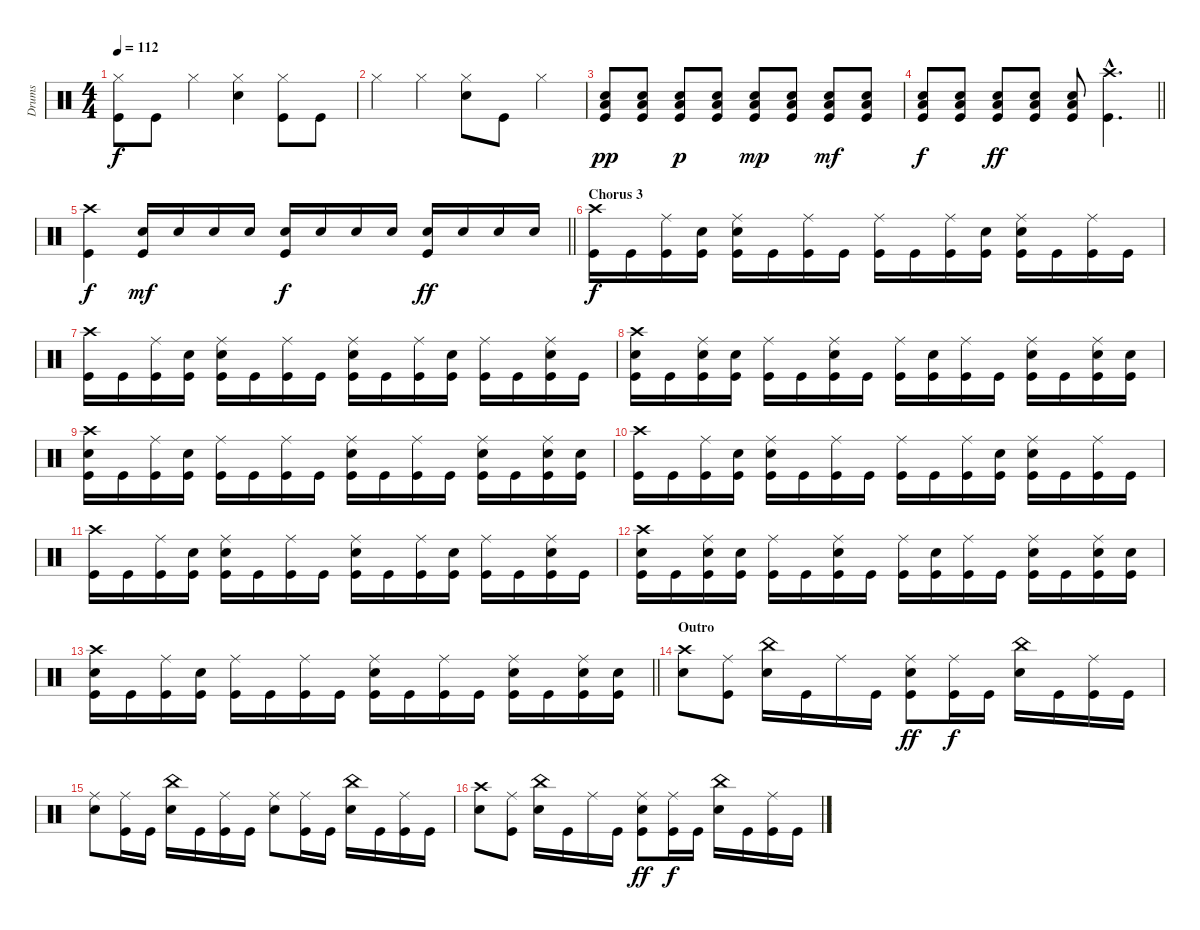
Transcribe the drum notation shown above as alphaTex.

\track ("Drums" "Drums") {instrument percussion}
\staff {score}
\articulation defaults
\ts (4 4)
\tempo 112
\clef neutral
\ks c
("Hi-Hat (closed)" "Kick (hit)").8{dy f} "Kick (hit)".8 "Hi-Hat (closed)".4 ("Hi-Hat (closed)" "Snare (hit) 2").4 ("Kick (hit)" "Hi-Hat (closed)").8 "Kick (hit)".8 |
"Hi-Hat (closed)".4 "Hi-Hat (closed)".4 ("Hi-Hat (closed)" "Snare (hit) 2").8 "Kick (hit)".8 "Hi-Hat (closed)".4 |
("Snare (hit) 2" "Low Floor Tom (hit)" "Kick (hit)").8{dy pp} ("Snare (hit) 2" "Low Floor Tom (hit)" "Kick (hit)").8 ("Snare (hit) 2" "Low Floor Tom (hit)" "Kick (hit)").8{dy p} ("Snare (hit) 2" "Low Floor Tom (hit)" "Kick (hit)").8 ("Snare (hit) 2" "Low Floor Tom (hit)" "Kick (hit)").8{dy mp} ("Snare (hit) 2" "Low Floor Tom (hit)" "Kick (hit)").8 ("Snare (hit) 2" "Low Floor Tom (hit)" "Kick (hit)").8{dy mf} ("Snare (hit) 2" "Low Floor Tom (hit)" "Kick (hit)").8 |
\barLineRight lightlight
("Snare (hit) 2" "Low Floor Tom (hit)" "Kick (hit)").8{dy f} ("Snare (hit) 2" "Low Floor Tom (hit)" "Kick (hit)").8 ("Snare (hit) 2" "Low Floor Tom (hit)" "Kick (hit)").8{dy ff} ("Snare (hit) 2" "Low Floor Tom (hit)" "Kick (hit)").8 ("Snare (hit) 2" "Low Floor Tom (hit)" "Kick (hit)").8 ("Crash high (hit)"{hac} "Kick (hit)"{hac}).4{d} |
\barLineRight lightlight
("Kick (hit)" "Crash high (hit)").4{dy f} ("Snare (hit) 2" "Kick (hit)").16{dy mf} "Snare (hit) 2".16 "Snare (hit) 2".16 "Snare (hit) 2".16 ("Snare (hit) 2" "Kick (hit)").16{dy f} "Snare (hit) 2".16 "Snare (hit) 2".16 "Snare (hit) 2".16 ("Snare (hit) 2" "Kick (hit)").16{dy ff} "Snare (hit) 2".16 "Snare (hit) 2".16 "Snare (hit) 2".16 |
\section ("" "Chorus 3")
("Crash high (hit)" "Kick (hit)").16{dy f} "Kick (hit)".16 ("Ride (middle)" "Kick (hit)").16 ("Snare (hit) 2" "Kick (hit)").16 ("Ride (middle)" "Snare (hit) 2" "Kick (hit)").16 "Kick (hit)".16 ("Ride (middle)" "Kick (hit)").16 "Kick (hit)".16 ("Ride (middle)" "Kick (hit)").16 "Kick (hit)".16 ("Ride (middle)" "Kick (hit)").16 ("Snare (hit) 2" "Kick (hit)").16 ("Ride (middle)" "Snare (hit) 2" "Kick (hit)").16 "Kick (hit)".16 ("Ride (middle)" "Kick (hit)").16 "Kick (hit)".16 |
("Crash high (hit)" "Kick (hit)").16 "Kick (hit)".16 ("Ride (middle)" "Kick (hit)").16 ("Snare (hit) 2" "Kick (hit)").16 ("Ride (middle)" "Snare (hit) 2" "Kick (hit)").16 "Kick (hit)".16 ("Ride (middle)" "Kick (hit)").16 "Kick (hit)".16 ("Ride (middle)" "Snare (hit) 2" "Kick (hit)").16 "Kick (hit)".16 ("Ride (middle)" "Kick (hit)").16 ("Snare (hit) 2" "Kick (hit)").16 ("Ride (middle)" "Kick (hit)").16 "Kick (hit)".16 ("Ride (middle)" "Snare (hit) 2" "Kick (hit)").16 "Kick (hit)".16 |
("Crash high (hit)" "Snare (hit) 2" "Kick (hit)").16 "Kick (hit)".16 ("Ride (middle)" "Snare (hit) 2" "Kick (hit)").16 ("Snare (hit) 2" "Kick (hit)").16 ("Ride (middle)" "Kick (hit)").16 "Kick (hit)".16 ("Ride (middle)" "Snare (hit) 2" "Kick (hit)").16 "Kick (hit)".16 ("Ride (middle)" "Kick (hit)").16 ("Snare (hit) 2" "Kick (hit)").16 ("Ride (middle)" "Kick (hit)").16 "Kick (hit)".16 ("Ride (middle)" "Snare (hit) 2" "Kick (hit)").16 "Kick (hit)".16 ("Ride (middle)" "Snare (hit) 2" "Kick (hit)").16 ("Snare (hit) 2" "Kick (hit)").16 |
("Crash high (hit)" "Snare (hit) 2" "Kick (hit)").16 "Kick (hit)".16 ("Ride (middle)" "Kick (hit)").16 ("Snare (hit) 2" "Kick (hit)").16 ("Ride (middle)" "Kick (hit)").16 "Kick (hit)".16 ("Ride (middle)" "Kick (hit)").16 "Kick (hit)".16 ("Ride (middle)" "Snare (hit) 2" "Kick (hit)").16 "Kick (hit)".16 ("Ride (middle)" "Kick (hit)").16 "Kick (hit)".16 ("Ride (middle)" "Snare (hit) 2" "Kick (hit)").16 "Kick (hit)".16 ("Ride (middle)" "Snare (hit) 2" "Kick (hit)").16 ("Snare (hit) 2" "Kick (hit)").16 |
("Crash high (hit)" "Kick (hit)").16 "Kick (hit)".16 ("Ride (middle)" "Kick (hit)").16 ("Snare (hit) 2" "Kick (hit)").16 ("Ride (middle)" "Snare (hit) 2" "Kick (hit)").16 "Kick (hit)".16 ("Ride (middle)" "Kick (hit)").16 "Kick (hit)".16 ("Ride (middle)" "Kick (hit)").16 "Kick (hit)".16 ("Ride (middle)" "Kick (hit)").16 ("Snare (hit) 2" "Kick (hit)").16 ("Ride (middle)" "Snare (hit) 2" "Kick (hit)").16 "Kick (hit)".16 ("Ride (middle)" "Kick (hit)").16 "Kick (hit)".16 |
("Crash high (hit)" "Kick (hit)").16 "Kick (hit)".16 ("Ride (middle)" "Kick (hit)").16 ("Snare (hit) 2" "Kick (hit)").16 ("Ride (middle)" "Snare (hit) 2" "Kick (hit)").16 "Kick (hit)".16 ("Ride (middle)" "Kick (hit)").16 "Kick (hit)".16 ("Ride (middle)" "Snare (hit) 2" "Kick (hit)").16 "Kick (hit)".16 ("Ride (middle)" "Kick (hit)").16 ("Snare (hit) 2" "Kick (hit)").16 ("Ride (middle)" "Kick (hit)").16 "Kick (hit)".16 ("Ride (middle)" "Snare (hit) 2" "Kick (hit)").16 "Kick (hit)".16 |
("Crash high (hit)" "Snare (hit) 2" "Kick (hit)").16 "Kick (hit)".16 ("Ride (middle)" "Snare (hit) 2" "Kick (hit)").16 ("Snare (hit) 2" "Kick (hit)").16 ("Ride (middle)" "Kick (hit)").16 "Kick (hit)".16 ("Ride (middle)" "Snare (hit) 2" "Kick (hit)").16 "Kick (hit)".16 ("Ride (middle)" "Kick (hit)").16 ("Snare (hit) 2" "Kick (hit)").16 ("Ride (middle)" "Kick (hit)").16 "Kick (hit)".16 ("Ride (middle)" "Snare (hit) 2" "Kick (hit)").16 "Kick (hit)".16 ("Ride (middle)" "Snare (hit) 2" "Kick (hit)").16 ("Snare (hit) 2" "Kick (hit)").16 |
\barLineRight lightlight
("Crash high (hit)" "Snare (hit) 2" "Kick (hit)").16 "Kick (hit)".16 ("Ride (middle)" "Kick (hit)").16 ("Snare (hit) 2" "Kick (hit)").16 ("Ride (middle)" "Kick (hit)").16 "Kick (hit)".16 ("Ride (middle)" "Kick (hit)").16 "Kick (hit)".16 ("Ride (middle)" "Snare (hit) 2" "Kick (hit)").16 "Kick (hit)".16 ("Ride (middle)" "Kick (hit)").16 "Kick (hit)".16 ("Ride (middle)" "Snare (hit) 2" "Kick (hit)").16 "Kick (hit)".16 ("Ride (middle)" "Snare (hit) 2" "Kick (hit)").16 ("Snare (hit) 2" "Kick (hit)").16 |
\section ("" "Outro")
("Snare (hit) 2" "Crash high (hit)").8 ("Ride (middle)" "Kick (hit)").8 ("China (hit)" "Snare (hit) 2").16 "Kick (hit)".16 "Ride (middle)".16 "Kick (hit)".16 ("Ride (middle)" "Snare (hit) 2" "Kick (hit)").8{dy ff} ("Ride (middle)" "Kick (hit)").16{dy f} "Kick (hit)".16 ("China (hit)" "Snare (hit) 2").16 "Kick (hit)".16 ("Ride (middle)" "Kick (hit)").16 "Kick (hit)".16 |
("Ride (middle)" "Snare (hit) 2").8 ("Ride (middle)" "Kick (hit)").16 "Kick (hit)".16 ("China (hit)" "Snare (hit) 2").16 "Kick (hit)".16 ("Ride (middle)" "Kick (hit)").16 "Kick (hit)".16 ("Ride (middle)" "Snare (hit) 2").8 ("Ride (middle)" "Kick (hit)").16 "Kick (hit)".16 ("China (hit)" "Snare (hit) 2").16 "Kick (hit)".16 ("Ride (middle)" "Kick (hit)").16 "Kick (hit)".16 |
("Snare (hit) 2" "Crash high (hit)").8 ("Ride (middle)" "Kick (hit)").8 ("China (hit)" "Snare (hit) 2").16 "Kick (hit)".16 "Ride (middle)".16 "Kick (hit)".16 ("Ride (middle)" "Snare (hit) 2" "Kick (hit)").8{dy ff} ("Ride (middle)" "Kick (hit)").16{dy f} "Kick (hit)".16 ("China (hit)" "Snare (hit) 2").16 "Kick (hit)".16 ("Ride (middle)" "Kick (hit)").16 "Kick (hit)".16
